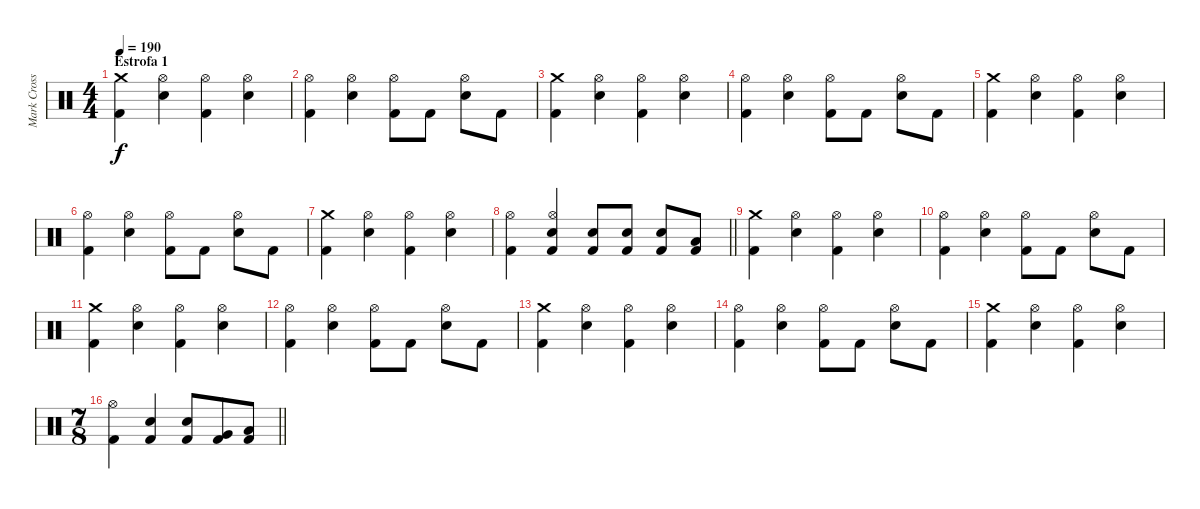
\track ("Mark Cross" "Mark Cross") {instrument percussion}
\staff {score}
\articulation defaults
\ts (4 4)
\section ("" "Estrofa 1")
\tempo 190
\clef neutral
\ks c
("Crash medium (hit)" "Kick (hit) 2").4{dy f} ("Hi-Hat (open)" "Electric Snare (hit)").4 ("Hi-Hat (open)" "Kick (hit) 2").4 ("Hi-Hat (open)" "Electric Snare (hit)").4 |
("Hi-Hat (open)" "Kick (hit) 2").4 ("Hi-Hat (open)" "Electric Snare (hit)").4 ("Hi-Hat (open)" "Kick (hit) 2").8 "Kick (hit) 2".8 ("Hi-Hat (open)" "Electric Snare (hit)").8 "Kick (hit) 2".8 |
("Crash medium (hit)" "Kick (hit) 2").4 ("Hi-Hat (open)" "Electric Snare (hit)").4 ("Hi-Hat (open)" "Kick (hit) 2").4 ("Hi-Hat (open)" "Electric Snare (hit)").4 |
("Hi-Hat (open)" "Kick (hit) 2").4 ("Hi-Hat (open)" "Electric Snare (hit)").4 ("Hi-Hat (open)" "Kick (hit) 2").8 "Kick (hit) 2".8 ("Hi-Hat (open)" "Electric Snare (hit)").8 "Kick (hit) 2".8 |
("Crash medium (hit)" "Kick (hit) 2").4 ("Hi-Hat (open)" "Electric Snare (hit)").4 ("Hi-Hat (open)" "Kick (hit) 2").4 ("Hi-Hat (open)" "Electric Snare (hit)").4 |
("Hi-Hat (open)" "Kick (hit) 2").4 ("Hi-Hat (open)" "Electric Snare (hit)").4 ("Hi-Hat (open)" "Kick (hit) 2").8 "Kick (hit) 2".8 ("Hi-Hat (open)" "Electric Snare (hit)").8 "Kick (hit) 2".8 |
("Crash medium (hit)" "Kick (hit) 2").4 ("Hi-Hat (open)" "Electric Snare (hit)").4 ("Hi-Hat (open)" "Kick (hit) 2").4 ("Hi-Hat (open)" "Electric Snare (hit)").4 |
\barLineRight lightlight
("Hi-Hat (open)" "Kick (hit) 2").4 ("Hi-Hat (open)" "Electric Snare (hit)" "Kick (hit) 2").4 ("Electric Snare (hit)" "Kick (hit) 2").8 ("Electric Snare (hit)" "Kick (hit) 2").8 ("Electric Snare (hit)" "Kick (hit) 2").8 ("Low Floor Tom (hit)" "Kick (hit) 2").8 |
("Crash medium (hit)" "Kick (hit) 2").4 ("Hi-Hat (open)" "Electric Snare (hit)").4 ("Hi-Hat (open)" "Kick (hit) 2").4 ("Hi-Hat (open)" "Electric Snare (hit)").4 |
("Hi-Hat (open)" "Kick (hit) 2").4 ("Hi-Hat (open)" "Electric Snare (hit)").4 ("Hi-Hat (open)" "Kick (hit) 2").8 "Kick (hit) 2".8 ("Hi-Hat (open)" "Electric Snare (hit)").8 "Kick (hit) 2".8 |
("Crash medium (hit)" "Kick (hit) 2").4 ("Hi-Hat (open)" "Electric Snare (hit)").4 ("Hi-Hat (open)" "Kick (hit) 2").4 ("Hi-Hat (open)" "Electric Snare (hit)").4 |
("Hi-Hat (open)" "Kick (hit) 2").4 ("Hi-Hat (open)" "Electric Snare (hit)").4 ("Hi-Hat (open)" "Kick (hit) 2").8 "Kick (hit) 2".8 ("Hi-Hat (open)" "Electric Snare (hit)").8 "Kick (hit) 2".8 |
("Crash medium (hit)" "Kick (hit) 2").4 ("Hi-Hat (open)" "Electric Snare (hit)").4 ("Hi-Hat (open)" "Kick (hit) 2").4 ("Hi-Hat (open)" "Electric Snare (hit)").4 |
("Hi-Hat (open)" "Kick (hit) 2").4 ("Hi-Hat (open)" "Electric Snare (hit)").4 ("Hi-Hat (open)" "Kick (hit) 2").8 "Kick (hit) 2".8 ("Hi-Hat (open)" "Electric Snare (hit)").8 "Kick (hit) 2".8 |
("Crash medium (hit)" "Kick (hit) 2").4 ("Hi-Hat (open)" "Electric Snare (hit)").4 ("Hi-Hat (open)" "Kick (hit) 2").4 ("Hi-Hat (open)" "Electric Snare (hit)").4 |
\ts (7 8)
\barLineRight lightlight
("Hi-Hat (open)" "Kick (hit) 2").4 ("Electric Snare (hit)" "Kick (hit) 2").4 ("Electric Snare (hit)" "Kick (hit) 2").8 ("Very Low Tom (hit)" "Kick (hit) 2").8 ("Low Floor Tom (hit)" "Kick (hit) 2").8
